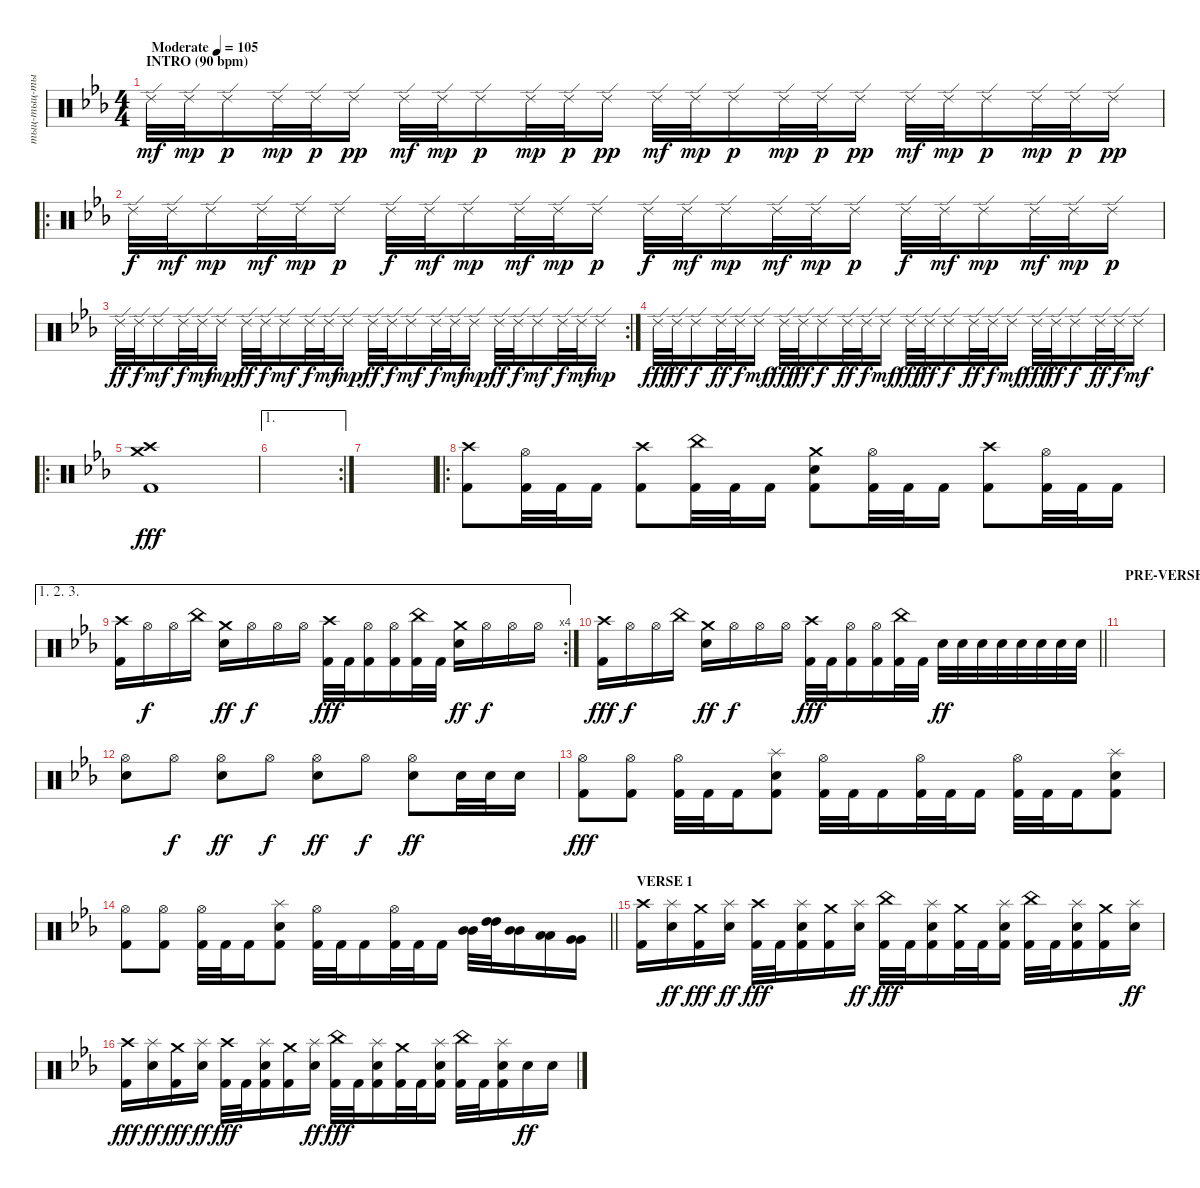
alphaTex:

\track ("тыц-тыц-тыц..." "тыц-тыц-ты") {instrument percussion}
\staff
\articulation defaults
\ts (4 4)
\section ("" "INTRO (90 bpm)")
\tempo (105 "Moderate")
\clef neutral
\ks cminor "Ride (edge) 2".32{dy mf} "Ride (edge) 2".32{dy mp} "Ride (edge) 2".16{dy p} "Ride (edge) 2".32{dy mp} "Ride (edge) 2".32{dy p} "Ride (edge) 2".16{dy pp} "Ride (edge) 2".32{dy mf} "Ride (edge) 2".32{dy mp} "Ride (edge) 2".16{dy p} "Ride (edge) 2".32{dy mp} "Ride (edge) 2".32{dy p} "Ride (edge) 2".16{dy pp} "Ride (edge) 2".32{dy mf} "Ride (edge) 2".32{dy mp} "Ride (edge) 2".16{dy p} "Ride (edge) 2".32{dy mp} "Ride (edge) 2".32{dy p} "Ride (edge) 2".16{dy pp} "Ride (edge) 2".32{dy mf} "Ride (edge) 2".32{dy mp} "Ride (edge) 2".16{dy p} "Ride (edge) 2".32{dy mp} "Ride (edge) 2".32{dy p} "Ride (edge) 2".16{dy pp}
|
\ro "Ride (edge) 2".32{dy f} "Ride (edge) 2".32{dy mf} "Ride (edge) 2".16{dy mp} "Ride (edge) 2".32{dy mf} "Ride (edge) 2".32{dy mp} "Ride (edge) 2".16{dy p} "Ride (edge) 2".32{dy f} "Ride (edge) 2".32{dy mf} "Ride (edge) 2".16{dy mp} "Ride (edge) 2".32{dy mf} "Ride (edge) 2".32{dy mp} "Ride (edge) 2".16{dy p} "Ride (edge) 2".32{dy f} "Ride (edge) 2".32{dy mf} "Ride (edge) 2".16{dy mp} "Ride (edge) 2".32{dy mf} "Ride (edge) 2".32{dy mp} "Ride (edge) 2".16{dy p} "Ride (edge) 2".32{dy f} "Ride (edge) 2".32{dy mf} "Ride (edge) 2".16{dy mp} "Ride (edge) 2".32{dy mf} "Ride (edge) 2".32{dy mp} "Ride (edge) 2".16{dy p}
|
\rc 2 "Ride (edge) 2".32{dy ff} "Ride (edge) 2".32{dy f} "Ride (edge) 2".16{dy mf} "Ride (edge) 2".32{dy f} "Ride (edge) 2".32{dy mf} "Ride (edge) 2".16{dy mp} "Ride (edge) 2".32{dy ff} "Ride (edge) 2".32{dy f} "Ride (edge) 2".16{dy mf} "Ride (edge) 2".32{dy f} "Ride (edge) 2".32{dy mf} "Ride (edge) 2".16{dy mp} "Ride (edge) 2".32{dy ff} "Ride (edge) 2".32{dy f} "Ride (edge) 2".16{dy mf} "Ride (edge) 2".32{dy f} "Ride (edge) 2".32{dy mf} "Ride (edge) 2".16{dy mp} "Ride (edge) 2".32{dy ff} "Ride (edge) 2".32{dy f} "Ride (edge) 2".16{dy mf} "Ride (edge) 2".32{dy f} "Ride (edge) 2".32{dy mf} "Ride (edge) 2".16{dy mp}
|
"Ride (edge) 2".32{dy fff} "Ride (edge) 2".32{dy ff} "Ride (edge) 2".16{dy f} "Ride (edge) 2".32{dy ff} "Ride (edge) 2".32{dy f} "Ride (edge) 2".16{dy mf} "Ride (edge) 2".32{dy fff} "Ride (edge) 2".32{dy ff} "Ride (edge) 2".16{dy f} "Ride (edge) 2".32{dy ff} "Ride (edge) 2".32{dy f} "Ride (edge) 2".16{dy mf} "Ride (edge) 2".32{dy fff} "Ride (edge) 2".32{dy ff} "Ride (edge) 2".16{dy f} "Ride (edge) 2".32{dy ff} "Ride (edge) 2".32{dy f} "Ride (edge) 2".16{dy mf} "Ride (edge) 2".32{dy fff} "Ride (edge) 2".32{dy ff} "Ride (edge) 2".16{dy f} "Ride (edge) 2".32{dy ff} "Ride (edge) 2".32{dy f} "Ride (edge) 2".16{dy mf} |
\ro
("Crash high (hit)" "Crash medium (hit)" "Kick (hit) 2").1{dy fff} |
\ae 1
\rc 2
|
|
\ro
("Crash high (hit)" "Kick (hit) 2").8 ("Hi-Hat (open)" "Kick (hit) 2").32 "Kick (hit) 2".32 "Kick (hit) 2".16 ("Crash high (hit)" "Kick (hit) 2").8 ("China (hit)" "Kick (hit) 2").32 "Kick (hit) 2".32 "Kick (hit) 2".16 ("Crash medium (hit)" "Electric Snare (hit)" "Kick (hit) 2").8 ("Hi-Hat (open)" "Kick (hit) 2").32 "Kick (hit) 2".32 "Kick (hit) 2".16 ("Crash high (hit)" "Kick (hit) 2").8 ("Hi-Hat (open)" "Kick (hit) 2").32 "Kick (hit) 2".32 "Kick (hit) 2".16 |
\ae (1 2 3)
\rc 4
("Crash high (hit)" "Kick (hit) 2").16 "Hi-Hat (open)".16{dy f} "Hi-Hat (open)".16 "China (hit)".16 ("Crash medium (hit)" "Electric Snare (hit)").16{dy ff} "Hi-Hat (open)".16{dy f} "Hi-Hat (open)".16 "Hi-Hat (open)".16 ("Crash high (hit)" "Kick (hit) 2").32{dy fff} "Kick (hit) 2".32 ("Hi-Hat (open)" "Kick (hit) 2").16 ("Hi-Hat (open)" "Kick (hit) 2").16 ("China (hit)" "Kick (hit) 2").32 "Kick (hit) 2".32 ("Crash medium (hit)" "Electric Snare (hit)").16{dy ff} "Hi-Hat (open)".16{dy f} "Hi-Hat (open)".16 "Hi-Hat (open)".16 |
\barLineRight lightlight
("Crash high (hit)" "Kick (hit) 2").16{dy fff} "Hi-Hat (open)".16{dy f} "Hi-Hat (open)".16 "China (hit)".16 ("Crash medium (hit)" "Electric Snare (hit)").16{dy ff} "Hi-Hat (open)".16{dy f} "Hi-Hat (open)".16 "Hi-Hat (open)".16 ("Crash high (hit)" "Kick (hit) 2").32{dy fff} "Kick (hit) 2".32 ("Hi-Hat (open)" "Kick (hit) 2").16 ("Hi-Hat (open)" "Kick (hit) 2").16 ("China (hit)" "Kick (hit) 2").32 "Kick (hit) 2".32 "Electric Snare (hit)".32{dy ff} "Electric Snare (hit)".32 "Electric Snare (hit)".32 "Electric Snare (hit)".32 "Electric Snare (hit)".32 "Electric Snare (hit)".32 "Electric Snare (hit)".32 "Electric Snare (hit)".32 |
\section ("" "PRE-VERSE")
|
("Hi-Hat (open)" "Electric Snare (hit)").8 "Hi-Hat (open)".8{dy f} ("Hi-Hat (open)" "Electric Snare (hit)").8{dy ff} "Hi-Hat (open)".8{dy f} ("Hi-Hat (open)" "Electric Snare (hit)").8{dy ff} "Hi-Hat (open)".8{dy f} ("Hi-Hat (open)" "Electric Snare (hit)").8{dy ff} "Electric Snare (hit)".32 "Electric Snare (hit)".32 "Electric Snare (hit)".16 |
("Hi-Hat (open)" "Kick (hit) 2").8{dy fff} ("Hi-Hat (open)" "Kick (hit) 2").8 ("Hi-Hat (open)" "Kick (hit) 2").32 "Kick (hit) 2".32 "Kick (hit) 2".16 ("Splash (hit)" "Electric Snare (hit)" "Kick (hit) 2").8 ("Hi-Hat (open)" "Kick (hit) 2").32 "Kick (hit) 2".32 "Kick (hit) 2".16 ("Hi-Hat (open)" "Kick (hit) 2").32 "Kick (hit) 2".32 "Kick (hit) 2".16 ("Hi-Hat (open)" "Kick (hit) 2").32 "Kick (hit) 2".32 "Kick (hit) 2".16 ("Splash (hit)" "Electric Snare (hit)" "Kick (hit) 2").8 |
\barLineRight lightlight
("Hi-Hat (open)" "Kick (hit) 2").8 ("Hi-Hat (open)" "Kick (hit) 2").8 ("Hi-Hat (open)" "Kick (hit) 2").32 "Kick (hit) 2".32 "Kick (hit) 2".16 ("Splash (hit)" "Electric Snare (hit)" "Kick (hit) 2").8 ("Hi-Hat (open)" "Kick (hit) 2").32 "Kick (hit) 2".32 "Kick (hit) 2".16 ("Hi-Hat (open)" "Kick (hit) 2").32 "Kick (hit) 2".32 "Kick (hit) 2".16 ("Mid Tom (hit)" "Mid Tom (hit)").32 ("High Tom (hit)" "High Tom (hit)").32 ("Mid Tom (hit)" "Mid Tom (hit)").16 ("Low Tom (hit)" "Low Tom (hit)").16 ("Very Low Tom (hit)" "Very Low Tom (hit)").16 |
\section ("" "VERSE 1")
("Crash high (hit)" "Kick (hit) 2").16 ("Splash (hit)" "Electric Snare (hit)").16{dy ff} ("Crash medium (hit)" "Kick (hit) 2").16{dy fff} ("Splash (hit)" "Electric Snare (hit)").16{dy ff} ("Crash high (hit)" "Kick (hit) 2").32{dy fff} "Kick (hit) 2".32 ("Splash (hit)" "Electric Snare (hit)" "Kick (hit) 2").16 ("Crash medium (hit)" "Kick (hit) 2").16 ("Splash (hit)" "Electric Snare (hit)").16{dy ff} ("China (hit)" "Kick (hit) 2").32{dy fff} "Kick (hit) 2".32 ("Splash (hit)" "Electric Snare (hit)" "Kick (hit) 2").16 ("Crash medium (hit)" "Kick (hit) 2").32 "Kick (hit) 2".32 ("Splash (hit)" "Electric Snare (hit)" "Kick (hit) 2").16 ("China (hit)" "Kick (hit) 2").32 "Kick (hit) 2".32 ("Splash (hit)" "Electric Snare (hit)" "Kick (hit) 2").16 ("Crash medium (hit)" "Kick (hit) 2").16 ("Splash (hit)" "Electric Snare (hit)").16{dy ff} |
("Crash high (hit)" "Kick (hit) 2").16{dy fff} ("Splash (hit)" "Electric Snare (hit)").16{dy ff} ("Crash medium (hit)" "Kick (hit) 2").16{dy fff} ("Splash (hit)" "Electric Snare (hit)").16{dy ff} ("Crash high (hit)" "Kick (hit) 2").32{dy fff} "Kick (hit) 2".32 ("Splash (hit)" "Electric Snare (hit)" "Kick (hit) 2").16 ("Crash medium (hit)" "Kick (hit) 2").16 ("Splash (hit)" "Electric Snare (hit)").16{dy ff} ("China (hit)" "Kick (hit) 2").32{dy fff} "Kick (hit) 2".32 ("Splash (hit)" "Electric Snare (hit)" "Kick (hit) 2").16 ("Crash medium (hit)" "Kick (hit) 2").32 "Kick (hit) 2".32 ("Splash (hit)" "Electric Snare (hit)" "Kick (hit) 2").16 ("China (hit)" "Kick (hit) 2").32 "Kick (hit) 2".32 ("Splash (hit)" "Electric Snare (hit)" "Kick (hit) 2").16 "Electric Snare (hit)".16{dy ff} "Electric Snare (hit)".16
